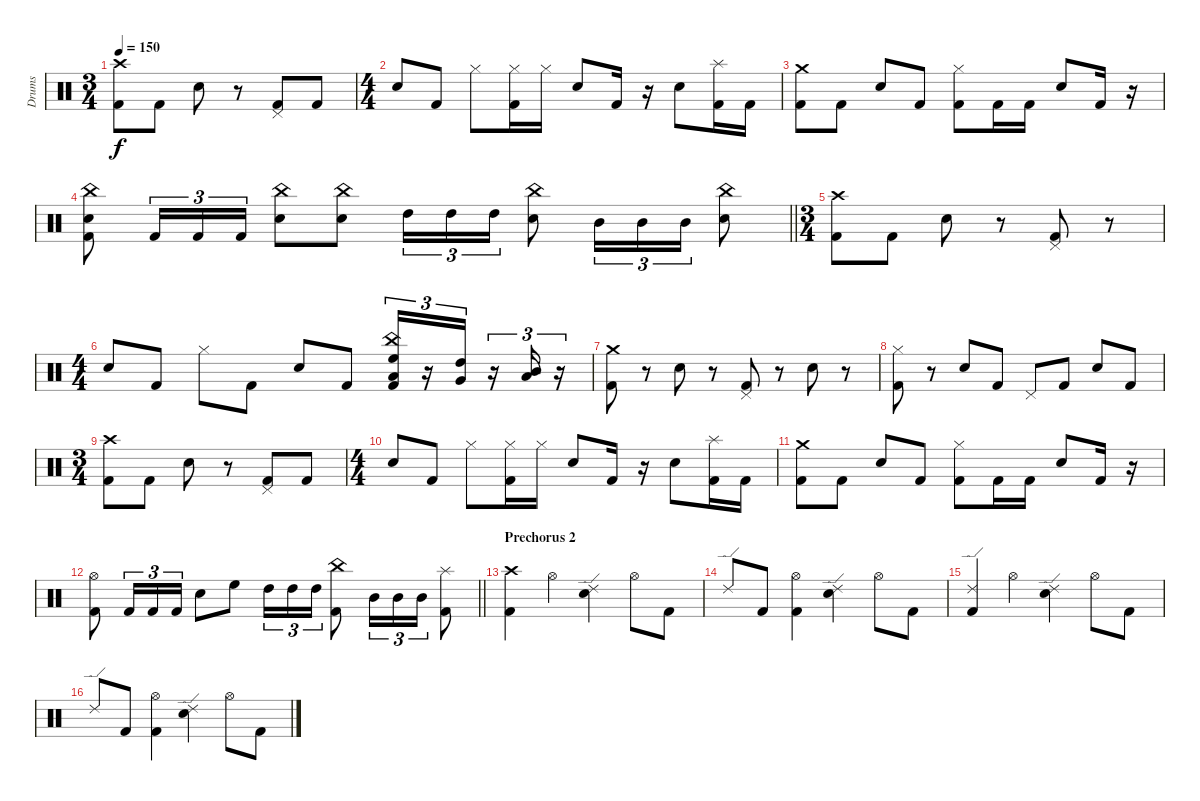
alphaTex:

\track ("Drums" "Drums") {instrument percussion}
\staff {score}
\articulation defaults
\ts (3 4)
\tempo 150
\clef neutral
\ks c
("Crash high (hit)" "Kick (hit) 2").8{dy f} "Kick (hit) 2".8 "Snare (hit) 2".8 r.8 ("Pedal Hi-Hat (hit)" "Kick (hit) 2").8 "Kick (hit) 2".8 |
\ts (4 4)
"Snare (hit) 2".8 "Kick (hit) 2".8 "Hi-Hat (closed)".8 ("Hi-Hat (closed)" "Kick (hit) 2").16 "Hi-Hat (closed)".16 "Snare (hit) 2".8 "Kick (hit) 2".16 r.16 "Snare (hit) 2".8 ("Splash (hit)" "Kick (hit) 2").16 "Kick (hit) 2".16 |
("Crash medium (hit)" "Kick (hit) 2").8 "Kick (hit) 2".8 "Snare (hit) 2".8 "Kick (hit) 2".8 ("Hi-Hat (closed)" "Kick (hit) 2").8 "Kick (hit) 2".16 "Kick (hit) 2".16 "Snare (hit) 2".8 "Kick (hit) 2".16 r.16 |
\barLineRight lightlight
("China (hit)" "Snare (hit) 2" "Kick (hit) 2").8 "Kick (hit) 2".16{tu (3 2)} "Kick (hit) 2".16{tu (3 2)} "Kick (hit) 2".16{tu (3 2)} ("China (hit)" "Snare (hit) 2").8 ("China (hit)" "Snare (hit) 2").8 "High Tom (hit)".16{tu (3 2)} "High Tom (hit)".16{tu (3 2)} "High Tom (hit)".16{tu (3 2)} ("China (hit)" "Snare (hit) 2").8 "Mid Tom (hit)".16{tu (3 2)} "Mid Tom (hit)".16{tu (3 2)} "Mid Tom (hit)".16{tu (3 2)} ("China (hit)" "Snare (hit) 2").8 |
\ts (3 4)
("Crash high (hit)" "Kick (hit) 2").8 "Kick (hit) 2".8 "Snare (hit) 2".8 r.8 ("Pedal Hi-Hat (hit)" "Kick (hit) 2").8 r.8 |
\ts (4 4)
"Snare (hit) 2".8 "Kick (hit) 2".8 "Hi-Hat (closed)".8 "Kick (hit) 2".8 "Snare (hit) 2".8 "Kick (hit) 2".8 ("China (hit)" "High Floor Tom (hit)" "Low Tom (hit)" "Kick (hit) 2").16{tu (3 2)} r.16{tu (3 2)} ("High Tom (hit)" "Very Low Tom (hit)").16{tu (3 2)} r.16{tu (3 2)} ("Mid Tom (hit)" "Low Floor Tom (hit)").16{tu (3 2)} r.16{tu (3 2)} |
("Crash medium (hit)" "Kick (hit) 2").8 r.8 "Snare (hit) 2".8 r.8 ("Pedal Hi-Hat (hit)" "Kick (hit) 2").8 r.8 "Snare (hit) 2".8 r.8 |
("Hi-Hat (closed)" "Kick (hit) 2").8 r.8 "Snare (hit) 2".8 "Kick (hit) 2".8 "Pedal Hi-Hat (hit)".8 "Kick (hit) 2".8 "Snare (hit) 2".8 "Kick (hit) 2".8 |
\ts (3 4)
("Crash high (hit)" "Kick (hit) 2").8 "Kick (hit) 2".8 "Snare (hit) 2".8 r.8 ("Pedal Hi-Hat (hit)" "Kick (hit) 2").8 "Kick (hit) 2".8 |
\ts (4 4)
"Snare (hit) 2".8 "Kick (hit) 2".8 "Hi-Hat (closed)".8 ("Hi-Hat (closed)" "Kick (hit) 2").16 "Hi-Hat (closed)".16 "Snare (hit) 2".8 "Kick (hit) 2".16 r.16 "Snare (hit) 2".8 ("Splash (hit)" "Kick (hit) 2").16 "Kick (hit) 2".16 |
("Crash medium (hit)" "Kick (hit) 2").8 "Kick (hit) 2".8 "Snare (hit) 2".8 "Kick (hit) 2".8 ("Hi-Hat (closed)" "Kick (hit) 2").8 "Kick (hit) 2".16 "Kick (hit) 2".16 "Snare (hit) 2".8 "Kick (hit) 2".16 r.16 |
\barLineRight lightlight
("Hi-Hat (open)" "Kick (hit) 2").8 "Kick (hit) 2".16{tu (3 2)} "Kick (hit) 2".16{tu (3 2)} "Kick (hit) 2".16{tu (3 2)} "Snare (hit) 2".8 "High Floor Tom (hit)".8 "High Tom (hit)".16{tu (3 2)} "High Tom (hit)".16{tu (3 2)} "High Tom (hit)".16{tu (3 2)} ("China (hit)" "Kick (hit) 2").8 "Mid Tom (hit)".16{tu (3 2)} "Mid Tom (hit)".16{tu (3 2)} "Mid Tom (hit)".16{tu (3 2)} ("Splash (hit)" "Kick (hit) 2").8 |
\section ("" "Prechorus 2")
("Crash high (hit)" "Kick (hit) 2").4 "Hi-Hat (open)".4 ("Ride (edge) 2" "Snare (hit) 2").4 "Hi-Hat (open)".8 "Kick (hit) 2".8 |
"Ride (edge) 2".8 "Kick (hit) 2".8 ("Hi-Hat (open)" "Kick (hit) 2").4 ("Ride (edge) 2" "Snare (hit) 2").4 "Hi-Hat (open)".8 "Kick (hit) 2".8 |
("Ride (edge) 2" "Kick (hit) 2").4 "Hi-Hat (open)".4 ("Ride (edge) 2" "Snare (hit) 2").4 "Hi-Hat (open)".8 "Kick (hit) 2".8 |
"Ride (edge) 2".8 "Kick (hit) 2".8 ("Hi-Hat (open)" "Kick (hit) 2").4 ("Ride (edge) 2" "Snare (hit) 2").4 "Hi-Hat (open)".8 "Kick (hit) 2".8
